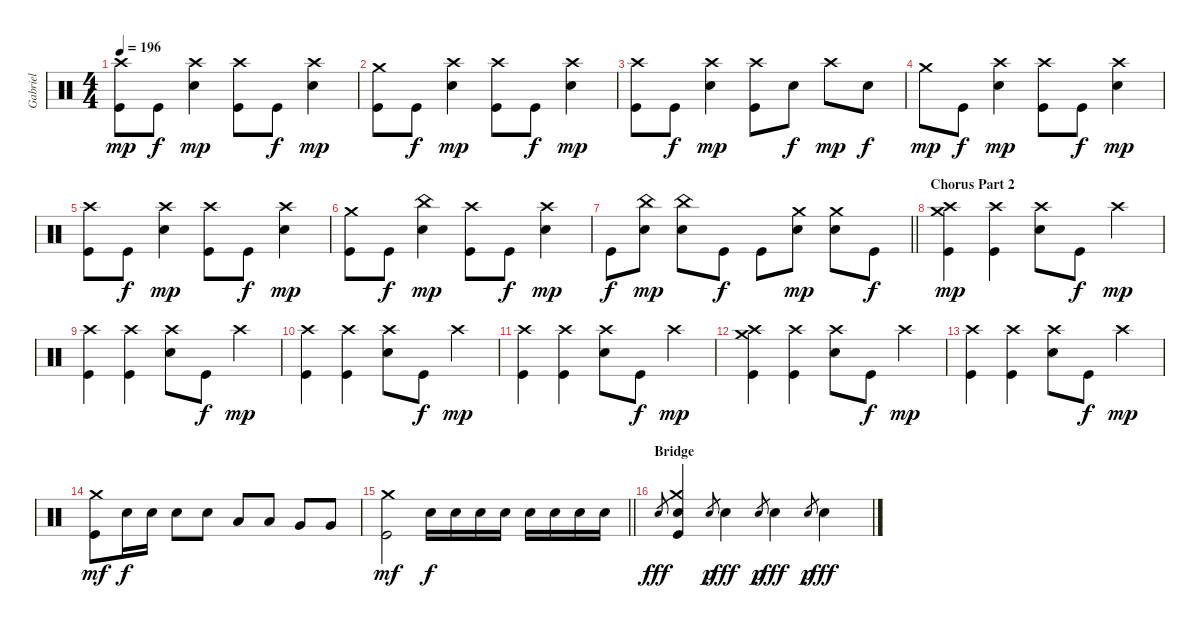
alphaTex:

\track ("Gabriel" "Gabriel") {instrument percussion}
\staff {score}
\articulation defaults
\ts (4 4)
\tempo 196
\clef neutral
\ks aminor
("Crash high (hit)" "Kick (hit)").8{dy mp} "Kick (hit)".8{dy f} ("Crash high (hit)" "Snare (hit) 2").4{dy mp} ("Crash high (hit)" "Kick (hit)").8 "Kick (hit)".8{dy f} ("Crash high (hit)" "Snare (hit) 2").4{dy mp} |
("Crash medium (hit)" "Kick (hit)").8 "Kick (hit)".8{dy f} ("Crash high (hit)" "Snare (hit) 2").4{dy mp} ("Crash high (hit)" "Kick (hit)").8 "Kick (hit)".8{dy f} ("Crash high (hit)" "Snare (hit) 2").4{dy mp} |
("Crash high (hit)" "Kick (hit)").8 "Kick (hit)".8{dy f} ("Crash high (hit)" "Snare (hit) 2").4{dy mp} ("Crash high (hit)" "Kick (hit)").8 "Snare (hit) 2".8{dy f} "Crash high (hit)".8{dy mp} "Snare (hit) 2".8{dy f} |
"Crash medium (hit)".8{dy mp} "Kick (hit)".8{dy f} ("Crash high (hit)" "Snare (hit) 2").4{dy mp} ("Crash high (hit)" "Kick (hit)").8 "Kick (hit)".8{dy f} ("Crash high (hit)" "Snare (hit) 2").4{dy mp} |
("Crash high (hit)" "Kick (hit)").8 "Kick (hit)".8{dy f} ("Crash high (hit)" "Snare (hit) 2").4{dy mp} ("Crash high (hit)" "Kick (hit)").8 "Kick (hit)".8{dy f} ("Crash high (hit)" "Snare (hit) 2").4{dy mp} |
("Crash medium (hit)" "Kick (hit)").8 "Kick (hit)".8{dy f} ("China (hit)" "Snare (hit) 2").4{dy mp} ("Crash high (hit)" "Kick (hit)").8 "Kick (hit)".8{dy f} ("Crash high (hit)" "Snare (hit) 2").4{dy mp} |
\barLineRight lightlight "Kick (hit)".8{dy f}
("China (hit)" "Snare (hit) 2").8{dy mp} ("China (hit)" "Snare (hit) 2").8 "Kick (hit)".8{dy f} "Kick (hit)".8 ("Crash medium (hit)" "Snare (hit) 2").8{dy mp} ("Crash medium (hit)" "Snare (hit) 2").8 "Kick (hit)".8{dy f} |
\section ("" "Chorus Part 2")
("Crash high (hit)" "Crash medium (hit)" "Kick (hit)").4{dy mp} ("Crash high (hit)" "Kick (hit)").4 ("Crash high (hit)" "Snare (hit) 2").8 "Kick (hit)".8{dy f} "Crash high (hit)".4{dy mp} |
("Crash high (hit)" "Kick (hit)").4 ("Crash high (hit)" "Kick (hit)").4 ("Crash high (hit)" "Snare (hit) 2").8 "Kick (hit)".8{dy f} "Crash high (hit)".4{dy mp} |
("Crash high (hit)" "Kick (hit)").4 ("Crash high (hit)" "Kick (hit)").4 ("Crash high (hit)" "Snare (hit) 2").8 "Kick (hit)".8{dy f} "Crash high (hit)".4{dy mp} |
("Crash high (hit)" "Kick (hit)").4 ("Crash high (hit)" "Kick (hit)").4 ("Crash high (hit)" "Snare (hit) 2").8 "Kick (hit)".8{dy f} "Crash high (hit)".4{dy mp} |
("Crash high (hit)" "Crash medium (hit)" "Kick (hit)").4 ("Crash high (hit)" "Kick (hit)").4 ("Crash high (hit)" "Snare (hit) 2").8 "Kick (hit)".8{dy f} "Crash high (hit)".4{dy mp} |
("Crash high (hit)" "Kick (hit)").4 ("Crash high (hit)" "Kick (hit)").4 ("Crash high (hit)" "Snare (hit) 2").8 "Kick (hit)".8{dy f} "Crash high (hit)".4{dy mp} |
("Crash medium (hit)" "Kick (hit)").8{dy mf} "Snare (hit) 2".16{dy f} "Snare (hit) 2".16 "Snare (hit) 2".8 "Snare (hit) 2".8 "Low Tom (hit)".8 "Low Tom (hit)".8 "Very Low Tom (hit)".8 "Very Low Tom (hit)".8 |
\barLineRight lightlight
("Crash medium (hit)" "Kick (hit)").2{dy mf} "Snare (hit) 2".16{dy f} "Snare (hit) 2".16 "Snare (hit) 2".16 "Snare (hit) 2".16 "Snare (hit) 2".16 "Snare (hit) 2".16 "Snare (hit) 2".16 "Snare (hit) 2".16 |
\section ("" "Bridge")
"Hand Clap (hit)".8{gr dy fff} ("Crash medium (hit)" "Kick (hit)" "Hand Clap (hit)").4 "Hand Clap (hit)".8{gr dy p} "Hand Clap (hit)".4{dy fff} "Hand Clap (hit)".8{gr dy p} "Hand Clap (hit)".4{dy fff} "Hand Clap (hit)".8{gr dy p} "Hand Clap (hit)".4{dy fff}
